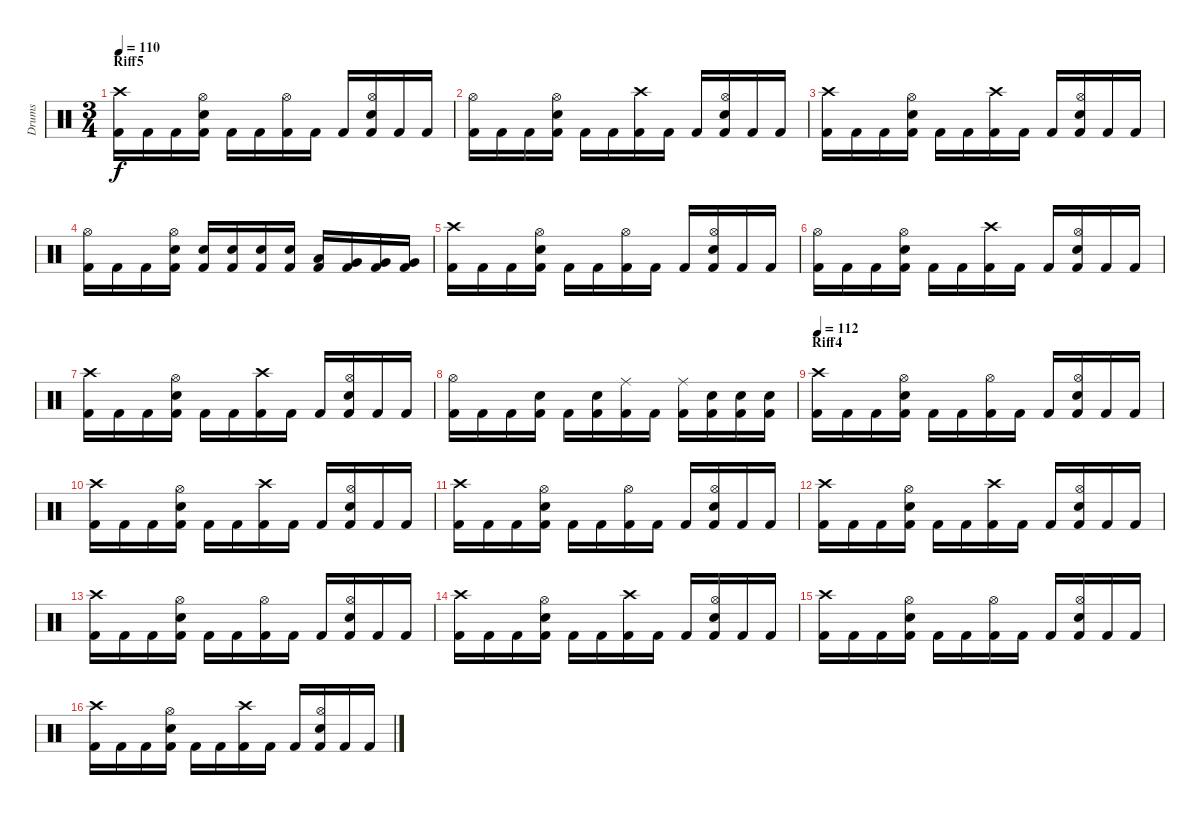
\track ("Drums" "Drums") {instrument percussion}
\staff {score}
\articulation defaults
\ts (3 4)
\section ("" "Riff5")
\tempo 110
\clef neutral
\ks c
("Crash high (hit)" "Kick (hit) 2").16{dy f} "Kick (hit) 2".16 "Kick (hit) 2".16 ("Hi-Hat (open)" "Snare (hit) 2" "Kick (hit) 2").16 "Kick (hit) 2".16 "Kick (hit) 2".16 ("Hi-Hat (open)" "Kick (hit) 2").16 "Kick (hit) 2".16 "Kick (hit) 2".16 ("Hi-Hat (open)" "Snare (hit) 2" "Kick (hit) 2").16 "Kick (hit) 2".16 "Kick (hit) 2".16 |
("Hi-Hat (open)" "Kick (hit) 2").16 "Kick (hit) 2".16 "Kick (hit) 2".16 ("Hi-Hat (open)" "Snare (hit) 2" "Kick (hit) 2").16 "Kick (hit) 2".16 "Kick (hit) 2".16 ("Crash high (hit)" "Kick (hit) 2").16 "Kick (hit) 2".16 "Kick (hit) 2".16 ("Hi-Hat (open)" "Snare (hit) 2" "Kick (hit) 2").16 "Kick (hit) 2".16 "Kick (hit) 2".16 |
("Crash high (hit)" "Kick (hit) 2").16 "Kick (hit) 2".16 "Kick (hit) 2".16 ("Hi-Hat (open)" "Snare (hit) 2" "Kick (hit) 2").16 "Kick (hit) 2".16 "Kick (hit) 2".16 ("Crash high (hit)" "Kick (hit) 2").16 "Kick (hit) 2".16 "Kick (hit) 2".16 ("Hi-Hat (open)" "Snare (hit) 2" "Kick (hit) 2").16 "Kick (hit) 2".16 "Kick (hit) 2".16 |
("Hi-Hat (open)" "Kick (hit) 2").16 "Kick (hit) 2".16 "Kick (hit) 2".16 ("Hi-Hat (open)" "Snare (hit) 2" "Kick (hit) 2").16 ("Snare (hit) 2" "Kick (hit) 2").16 ("Snare (hit) 2" "Kick (hit) 2").16 ("Snare (hit) 2" "Kick (hit) 2").16 ("Snare (hit) 2" "Kick (hit) 2").16 ("Low Tom (hit)" "Kick (hit) 2").16 ("Very Low Tom (hit)" "Kick (hit) 2").16 ("Very Low Tom (hit)" "Kick (hit) 2").16 ("Very Low Tom (hit)" "Kick (hit) 2").16 |
("Crash high (hit)" "Kick (hit) 2").16 "Kick (hit) 2".16 "Kick (hit) 2".16 ("Hi-Hat (open)" "Snare (hit) 2" "Kick (hit) 2").16 "Kick (hit) 2".16 "Kick (hit) 2".16 ("Hi-Hat (open)" "Kick (hit) 2").16 "Kick (hit) 2".16 "Kick (hit) 2".16 ("Hi-Hat (open)" "Snare (hit) 2" "Kick (hit) 2").16 "Kick (hit) 2".16 "Kick (hit) 2".16 |
("Hi-Hat (open)" "Kick (hit) 2").16 "Kick (hit) 2".16 "Kick (hit) 2".16 ("Hi-Hat (open)" "Snare (hit) 2" "Kick (hit) 2").16 "Kick (hit) 2".16 "Kick (hit) 2".16 ("Crash high (hit)" "Kick (hit) 2").16 "Kick (hit) 2".16 "Kick (hit) 2".16 ("Hi-Hat (open)" "Snare (hit) 2" "Kick (hit) 2").16 "Kick (hit) 2".16 "Kick (hit) 2".16 |
("Crash high (hit)" "Kick (hit) 2").16 "Kick (hit) 2".16 "Kick (hit) 2".16 ("Hi-Hat (open)" "Snare (hit) 2" "Kick (hit) 2").16 "Kick (hit) 2".16 "Kick (hit) 2".16 ("Crash high (hit)" "Kick (hit) 2").16 "Kick (hit) 2".16 "Kick (hit) 2".16 ("Hi-Hat (open)" "Snare (hit) 2" "Kick (hit) 2").16 "Kick (hit) 2".16 "Kick (hit) 2".16 |
("Hi-Hat (open)" "Kick (hit) 2").16 "Kick (hit) 2".16 "Kick (hit) 2".16 ("Snare (hit) 2" "Kick (hit) 2").16 "Kick (hit) 2".16 ("Snare (hit) 2" "Kick (hit) 2").16 ("Ride (middle)" "Kick (hit) 2").16 "Kick (hit) 2".16 ("Ride (middle)" "Kick (hit) 2").16 ("Snare (hit) 2" "Kick (hit) 2").16 ("Snare (hit) 2" "Kick (hit) 2").16 ("Snare (hit) 2" "Kick (hit) 2").16 |
\section ("" "Riff4")
\tempo 112
("Crash high (hit)" "Kick (hit) 2").16 "Kick (hit) 2".16 "Kick (hit) 2".16 ("Hi-Hat (open)" "Snare (hit) 2" "Kick (hit) 2").16 "Kick (hit) 2".16 "Kick (hit) 2".16 ("Hi-Hat (open)" "Kick (hit) 2").16 "Kick (hit) 2".16 "Kick (hit) 2".16 ("Hi-Hat (open)" "Snare (hit) 2" "Kick (hit) 2").16 "Kick (hit) 2".16 "Kick (hit) 2".16 |
("Crash high (hit)" "Kick (hit) 2").16 "Kick (hit) 2".16 "Kick (hit) 2".16 ("Hi-Hat (open)" "Snare (hit) 2" "Kick (hit) 2").16 "Kick (hit) 2".16 "Kick (hit) 2".16 ("Crash high (hit)" "Kick (hit) 2").16 "Kick (hit) 2".16 "Kick (hit) 2".16 ("Hi-Hat (open)" "Snare (hit) 2" "Kick (hit) 2").16 "Kick (hit) 2".16 "Kick (hit) 2".16 |
("Crash high (hit)" "Kick (hit) 2").16 "Kick (hit) 2".16 "Kick (hit) 2".16 ("Hi-Hat (open)" "Snare (hit) 2" "Kick (hit) 2").16 "Kick (hit) 2".16 "Kick (hit) 2".16 ("Hi-Hat (open)" "Kick (hit) 2").16 "Kick (hit) 2".16 "Kick (hit) 2".16 ("Hi-Hat (open)" "Snare (hit) 2" "Kick (hit) 2").16 "Kick (hit) 2".16 "Kick (hit) 2".16 |
("Crash high (hit)" "Kick (hit) 2").16 "Kick (hit) 2".16 "Kick (hit) 2".16 ("Hi-Hat (open)" "Snare (hit) 2" "Kick (hit) 2").16 "Kick (hit) 2".16 "Kick (hit) 2".16 ("Crash high (hit)" "Kick (hit) 2").16 "Kick (hit) 2".16 "Kick (hit) 2".16 ("Hi-Hat (open)" "Snare (hit) 2" "Kick (hit) 2").16 "Kick (hit) 2".16 "Kick (hit) 2".16 |
("Crash high (hit)" "Kick (hit) 2").16 "Kick (hit) 2".16 "Kick (hit) 2".16 ("Hi-Hat (open)" "Snare (hit) 2" "Kick (hit) 2").16 "Kick (hit) 2".16 "Kick (hit) 2".16 ("Hi-Hat (open)" "Kick (hit) 2").16 "Kick (hit) 2".16 "Kick (hit) 2".16 ("Hi-Hat (open)" "Snare (hit) 2" "Kick (hit) 2").16 "Kick (hit) 2".16 "Kick (hit) 2".16 |
("Crash high (hit)" "Kick (hit) 2").16 "Kick (hit) 2".16 "Kick (hit) 2".16 ("Hi-Hat (open)" "Snare (hit) 2" "Kick (hit) 2").16 "Kick (hit) 2".16 "Kick (hit) 2".16 ("Crash high (hit)" "Kick (hit) 2").16 "Kick (hit) 2".16 "Kick (hit) 2".16 ("Hi-Hat (open)" "Snare (hit) 2" "Kick (hit) 2").16 "Kick (hit) 2".16 "Kick (hit) 2".16 |
("Crash high (hit)" "Kick (hit) 2").16 "Kick (hit) 2".16 "Kick (hit) 2".16 ("Hi-Hat (open)" "Snare (hit) 2" "Kick (hit) 2").16 "Kick (hit) 2".16 "Kick (hit) 2".16 ("Hi-Hat (open)" "Kick (hit) 2").16 "Kick (hit) 2".16 "Kick (hit) 2".16 ("Hi-Hat (open)" "Snare (hit) 2" "Kick (hit) 2").16 "Kick (hit) 2".16 "Kick (hit) 2".16 |
("Crash high (hit)" "Kick (hit) 2").16 "Kick (hit) 2".16 "Kick (hit) 2".16 ("Hi-Hat (open)" "Snare (hit) 2" "Kick (hit) 2").16 "Kick (hit) 2".16 "Kick (hit) 2".16 ("Crash high (hit)" "Kick (hit) 2").16 "Kick (hit) 2".16 "Kick (hit) 2".16 ("Hi-Hat (open)" "Snare (hit) 2" "Kick (hit) 2").16 "Kick (hit) 2".16 "Kick (hit) 2".16
